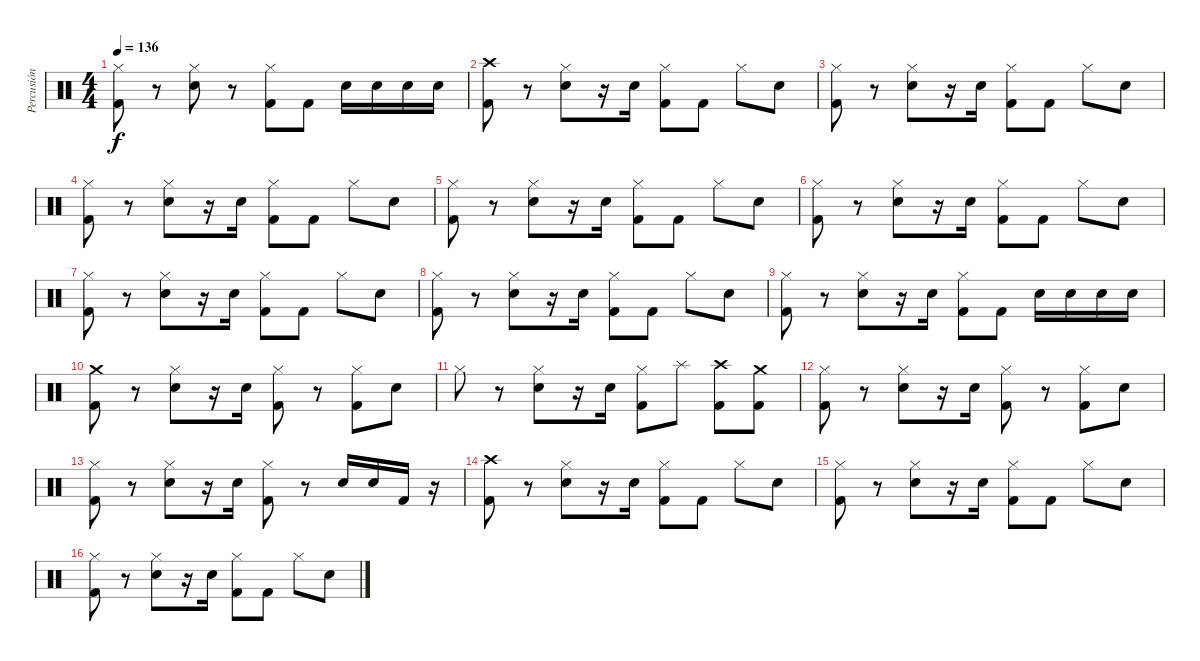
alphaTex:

\track ("Percusión" "Percusión") {instrument percussion}
\staff {score}
\articulation defaults
\ts (4 4)
\tempo 136
\clef neutral
\ks c
("Hi-Hat (closed)" "Kick (hit) 2").8{dy f} r.8 ("Hi-Hat (closed)" "Electric Snare (hit)").8 r.8 ("Hi-Hat (closed)" "Kick (hit) 2").8 "Kick (hit) 2".8 "Electric Snare (hit)".16 "Electric Snare (hit)".16 "Electric Snare (hit)".16 "Electric Snare (hit)".16 |
("Crash high (hit)" "Kick (hit) 2").8 r.8 ("Hi-Hat (closed)" "Electric Snare (hit)").8 r.16 "Electric Snare (hit)".16 ("Hi-Hat (closed)" "Kick (hit) 2").8 "Kick (hit) 2".8 "Hi-Hat (closed)".8 "Electric Snare (hit)".8 |
("Hi-Hat (closed)" "Kick (hit) 2").8 r.8 ("Hi-Hat (closed)" "Electric Snare (hit)").8 r.16 "Electric Snare (hit)".16 ("Hi-Hat (closed)" "Kick (hit) 2").8 "Kick (hit) 2".8 "Hi-Hat (closed)".8 "Electric Snare (hit)".8 |
("Hi-Hat (closed)" "Kick (hit) 2").8 r.8 ("Hi-Hat (closed)" "Electric Snare (hit)").8 r.16 "Electric Snare (hit)".16 ("Hi-Hat (closed)" "Kick (hit) 2").8 "Kick (hit) 2".8 "Hi-Hat (closed)".8 "Electric Snare (hit)".8 |
("Hi-Hat (closed)" "Kick (hit) 2").8 r.8 ("Hi-Hat (closed)" "Electric Snare (hit)").8 r.16 "Electric Snare (hit)".16 ("Hi-Hat (closed)" "Kick (hit) 2").8 "Kick (hit) 2".8 "Hi-Hat (closed)".8 "Electric Snare (hit)".8 |
("Hi-Hat (closed)" "Kick (hit) 2").8 r.8 ("Hi-Hat (closed)" "Electric Snare (hit)").8 r.16 "Electric Snare (hit)".16 ("Hi-Hat (closed)" "Kick (hit) 2").8 "Kick (hit) 2".8 "Hi-Hat (closed)".8 "Electric Snare (hit)".8 |
("Hi-Hat (closed)" "Kick (hit) 2").8 r.8 ("Hi-Hat (closed)" "Electric Snare (hit)").8 r.16 "Electric Snare (hit)".16 ("Hi-Hat (closed)" "Kick (hit) 2").8 "Kick (hit) 2".8 "Hi-Hat (closed)".8 "Electric Snare (hit)".8 |
("Hi-Hat (closed)" "Kick (hit) 2").8 r.8 ("Hi-Hat (closed)" "Electric Snare (hit)").8 r.16 "Electric Snare (hit)".16 ("Hi-Hat (closed)" "Kick (hit) 2").8 "Kick (hit) 2".8 "Hi-Hat (closed)".8 "Electric Snare (hit)".8 |
("Hi-Hat (closed)" "Kick (hit) 2").8 r.8 ("Hi-Hat (closed)" "Electric Snare (hit)").8 r.16 "Electric Snare (hit)".16 ("Hi-Hat (closed)" "Kick (hit) 2").8 "Kick (hit) 2".8 "Electric Snare (hit)".16 "Electric Snare (hit)".16 "Electric Snare (hit)".16 "Electric Snare (hit)".16 |
("Crash medium (hit)" "Kick (hit) 2").8 r.8 ("Hi-Hat (closed)" "Electric Snare (hit)").8 r.16 "Electric Snare (hit)".16 ("Hi-Hat (closed)" "Kick (hit) 2").8 r.8 ("Hi-Hat (closed)" "Kick (hit) 2").8 "Electric Snare (hit)".8 |
"Hi-Hat (closed)".8 r.8 ("Hi-Hat (closed)" "Electric Snare (hit)").8 r.16 "Electric Snare (hit)".16 ("Hi-Hat (closed)" "Kick (hit) 2").8 "Splash (hit)".8 ("Crash high (hit)" "Kick (hit) 2").8 ("Crash medium (hit)" "Kick (hit) 2").8 |
("Hi-Hat (closed)" "Kick (hit) 2").8 r.8 ("Hi-Hat (closed)" "Electric Snare (hit)").8 r.16 "Electric Snare (hit)".16 ("Hi-Hat (closed)" "Kick (hit) 2").8 r.8 ("Hi-Hat (closed)" "Kick (hit) 2").8 "Electric Snare (hit)".8 |
("Hi-Hat (closed)" "Kick (hit) 2").8 r.8 ("Hi-Hat (closed)" "Electric Snare (hit)").8 r.16 "Electric Snare (hit)".16 ("Hi-Hat (closed)" "Kick (hit) 2").8 r.8 "Electric Snare (hit)".16 "Electric Snare (hit)".16 "Kick (hit) 2".16 r.16 |
("Crash high (hit)" "Kick (hit) 2").8 r.8 ("Hi-Hat (closed)" "Electric Snare (hit)").8 r.16 "Electric Snare (hit)".16 ("Hi-Hat (closed)" "Kick (hit) 2").8 "Kick (hit) 2".8 "Hi-Hat (closed)".8 "Electric Snare (hit)".8 |
("Hi-Hat (closed)" "Kick (hit) 2").8 r.8 ("Hi-Hat (closed)" "Electric Snare (hit)").8 r.16 "Electric Snare (hit)".16 ("Hi-Hat (closed)" "Kick (hit) 2").8 "Kick (hit) 2".8 "Hi-Hat (closed)".8 "Electric Snare (hit)".8 |
("Hi-Hat (closed)" "Kick (hit) 2").8 r.8 ("Hi-Hat (closed)" "Electric Snare (hit)").8 r.16 "Electric Snare (hit)".16 ("Hi-Hat (closed)" "Kick (hit) 2").8 "Kick (hit) 2".8 "Hi-Hat (closed)".8 "Electric Snare (hit)".8
